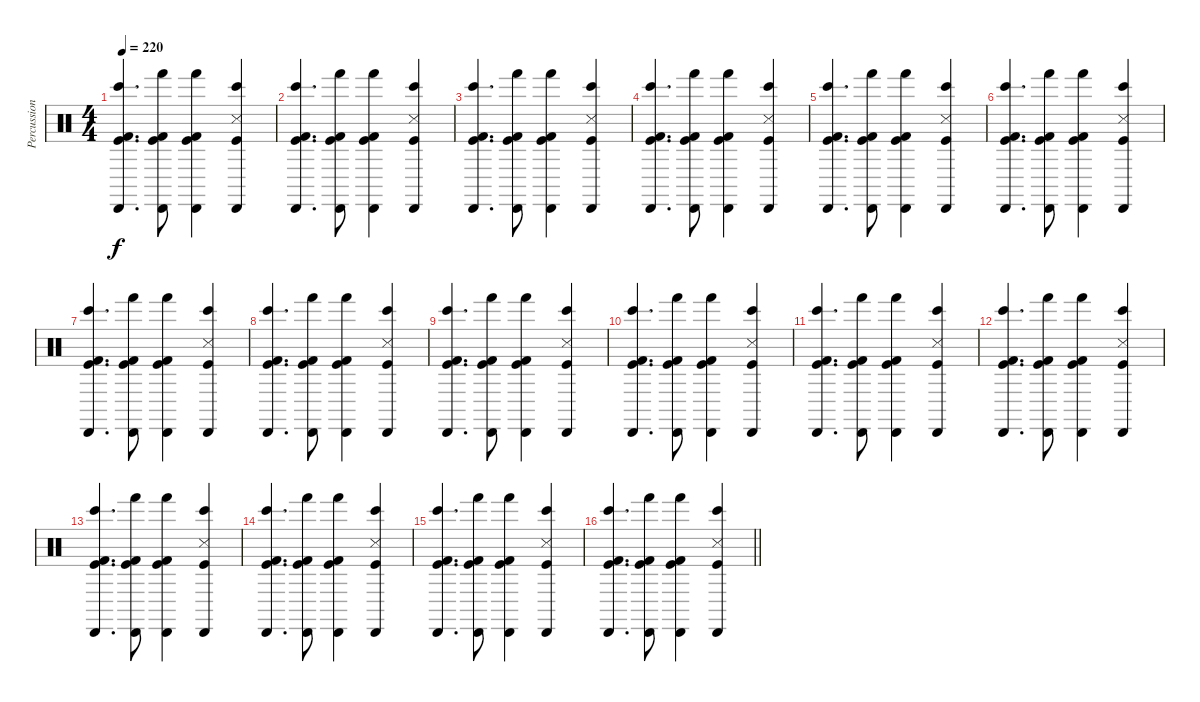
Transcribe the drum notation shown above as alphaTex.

\track ("Percussions" "Percussion") {instrument percussion}
\staff {score}
\articulation defaults
\ts (4 4)
\tempo 220
\clef neutral
\ks c
("Kick (hit)" "Kick (hit) 2" "Bongo High (hit)" "Cabasa (hit)").4{d dy f} ("Kick (hit)" "Kick (hit) 2" "Hand (hit)" "Cabasa (hit)").8 ("Kick (hit)" "Kick (hit) 2" "Hand (hit)" "Cabasa (hit)").4 ("Kick (hit)" "Snare (side stick) 3" "Bongo High (hit)" "Cabasa (hit)").4 |
("Kick (hit)" "Kick (hit) 2" "Bongo High (hit)" "Cabasa (hit)").4{d} ("Kick (hit)" "Kick (hit) 2" "Hand (hit)" "Cabasa (hit)").8 ("Kick (hit)" "Kick (hit) 2" "Hand (hit)" "Cabasa (hit)").4 ("Kick (hit)" "Snare (side stick) 3" "Bongo High (hit)" "Cabasa (hit)").4 |
("Kick (hit)" "Kick (hit) 2" "Bongo High (hit)" "Cabasa (hit)").4{d} ("Kick (hit)" "Kick (hit) 2" "Hand (hit)" "Cabasa (hit)").8 ("Kick (hit)" "Kick (hit) 2" "Hand (hit)" "Cabasa (hit)").4 ("Kick (hit)" "Snare (side stick) 3" "Bongo High (hit)" "Cabasa (hit)").4 |
("Kick (hit)" "Kick (hit) 2" "Bongo High (hit)" "Cabasa (hit)").4{d} ("Kick (hit)" "Kick (hit) 2" "Hand (hit)" "Cabasa (hit)").8 ("Kick (hit)" "Kick (hit) 2" "Hand (hit)" "Cabasa (hit)").4 ("Kick (hit)" "Snare (side stick) 3" "Bongo High (hit)" "Cabasa (hit)").4 |
("Kick (hit)" "Kick (hit) 2" "Bongo High (hit)" "Cabasa (hit)").4{d} ("Kick (hit)" "Kick (hit) 2" "Hand (hit)" "Cabasa (hit)").8 ("Kick (hit)" "Kick (hit) 2" "Hand (hit)" "Cabasa (hit)").4 ("Kick (hit)" "Snare (side stick) 3" "Bongo High (hit)" "Cabasa (hit)").4 |
("Kick (hit)" "Kick (hit) 2" "Bongo High (hit)" "Cabasa (hit)").4{d} ("Kick (hit)" "Kick (hit) 2" "Hand (hit)" "Cabasa (hit)").8 ("Kick (hit)" "Kick (hit) 2" "Hand (hit)" "Cabasa (hit)").4 ("Kick (hit)" "Snare (side stick) 3" "Bongo High (hit)" "Cabasa (hit)").4 |
("Kick (hit)" "Kick (hit) 2" "Bongo High (hit)" "Cabasa (hit)").4{d} ("Kick (hit)" "Kick (hit) 2" "Hand (hit)" "Cabasa (hit)").8 ("Kick (hit)" "Kick (hit) 2" "Hand (hit)" "Cabasa (hit)").4 ("Kick (hit)" "Snare (side stick) 3" "Bongo High (hit)" "Cabasa (hit)").4 |
("Kick (hit)" "Kick (hit) 2" "Bongo High (hit)" "Cabasa (hit)").4{d} ("Kick (hit)" "Kick (hit) 2" "Hand (hit)" "Cabasa (hit)").8 ("Kick (hit)" "Kick (hit) 2" "Hand (hit)" "Cabasa (hit)").4 ("Kick (hit)" "Snare (side stick) 3" "Bongo High (hit)" "Cabasa (hit)").4 |
("Kick (hit)" "Kick (hit) 2" "Bongo High (hit)" "Cabasa (hit)").4{d} ("Kick (hit)" "Kick (hit) 2" "Hand (hit)" "Cabasa (hit)").8 ("Kick (hit)" "Kick (hit) 2" "Hand (hit)" "Cabasa (hit)").4 ("Kick (hit)" "Snare (side stick) 3" "Bongo High (hit)" "Cabasa (hit)").4 |
("Kick (hit)" "Kick (hit) 2" "Bongo High (hit)" "Cabasa (hit)").4{d} ("Kick (hit)" "Kick (hit) 2" "Hand (hit)" "Cabasa (hit)").8 ("Kick (hit)" "Kick (hit) 2" "Hand (hit)" "Cabasa (hit)").4 ("Kick (hit)" "Snare (side stick) 3" "Bongo High (hit)" "Cabasa (hit)").4 |
("Kick (hit)" "Kick (hit) 2" "Bongo High (hit)" "Cabasa (hit)").4{d} ("Kick (hit)" "Kick (hit) 2" "Hand (hit)" "Cabasa (hit)").8 ("Kick (hit)" "Kick (hit) 2" "Hand (hit)" "Cabasa (hit)").4 ("Kick (hit)" "Snare (side stick) 3" "Bongo High (hit)" "Cabasa (hit)").4 |
("Kick (hit)" "Kick (hit) 2" "Bongo High (hit)" "Cabasa (hit)").4{d} ("Kick (hit)" "Kick (hit) 2" "Hand (hit)" "Cabasa (hit)").8 ("Kick (hit)" "Kick (hit) 2" "Hand (hit)" "Cabasa (hit)").4 ("Kick (hit)" "Snare (side stick) 3" "Bongo High (hit)" "Cabasa (hit)").4 |
("Kick (hit)" "Kick (hit) 2" "Bongo High (hit)" "Cabasa (hit)").4{d} ("Kick (hit)" "Kick (hit) 2" "Hand (hit)" "Cabasa (hit)").8 ("Kick (hit)" "Kick (hit) 2" "Hand (hit)" "Cabasa (hit)").4 ("Kick (hit)" "Snare (side stick) 3" "Bongo High (hit)" "Cabasa (hit)").4 |
("Kick (hit)" "Kick (hit) 2" "Bongo High (hit)" "Cabasa (hit)").4{d} ("Kick (hit)" "Kick (hit) 2" "Hand (hit)" "Cabasa (hit)").8 ("Kick (hit)" "Kick (hit) 2" "Hand (hit)" "Cabasa (hit)").4 ("Kick (hit)" "Snare (side stick) 3" "Bongo High (hit)" "Cabasa (hit)").4 |
("Kick (hit)" "Kick (hit) 2" "Bongo High (hit)" "Cabasa (hit)").4{d} ("Kick (hit)" "Kick (hit) 2" "Hand (hit)" "Cabasa (hit)").8 ("Kick (hit)" "Kick (hit) 2" "Hand (hit)" "Cabasa (hit)").4 ("Kick (hit)" "Snare (side stick) 3" "Bongo High (hit)" "Cabasa (hit)").4 |
\barLineRight lightlight
("Kick (hit)" "Kick (hit) 2" "Bongo High (hit)" "Cabasa (hit)").4{d} ("Kick (hit)" "Kick (hit) 2" "Hand (hit)" "Cabasa (hit)").8 ("Kick (hit)" "Kick (hit) 2" "Hand (hit)" "Cabasa (hit)").4 ("Kick (hit)" "Snare (side stick) 3" "Bongo High (hit)" "Cabasa (hit)").4
